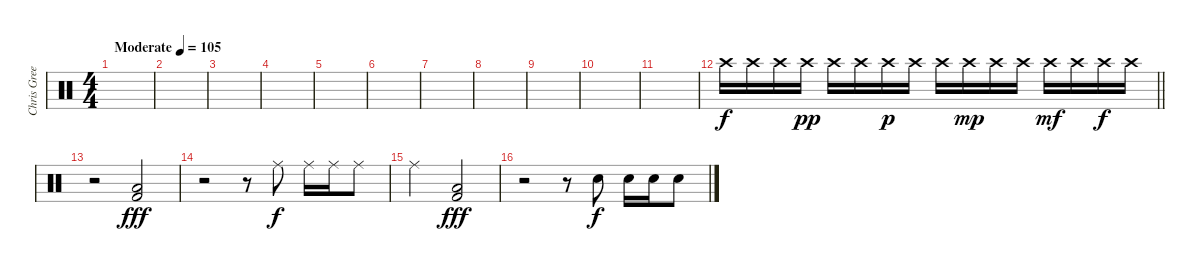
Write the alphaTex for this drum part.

\track ("Chris Greene" "Chris Gree") {instrument percussion}
\staff {score}
\articulation defaults
\ts (4 4)
\tempo (105 "Moderate")
\clef neutral
\ks c
|
|
|
|
|
|
|
|
|
|
|
\barLineRight lightlight "Crash high (hit)".16 "Crash high (hit)".16 "Crash high (hit)".16 "Crash high (hit)".16{dy pp} "Crash high (hit)".16 "Crash high (hit)".16 "Crash high (hit)".16{dy p} "Crash high (hit)".16 "Crash high (hit)".16 "Crash high (hit)".16{dy mp} "Crash high (hit)".16 "Crash high (hit)".16 "Crash high (hit)".16{dy mf} "Crash high (hit)".16 "Crash high (hit)".16{dy f} "Crash high (hit)".16
|
r.2 ("Low Floor Tom (hit)" "Kick (hit) 2").2{dy fff} |
r.2 r.8 "Ride (middle)".8{dy f} "Ride (middle)".16 "Ride (middle)".16 "Ride (middle)".8 |
"Ride (middle)".2 ("Low Floor Tom (hit)" "Kick (hit) 2").2{dy fff} |
r.2 r.8 "Electric Snare (hit)".8{dy f} "Electric Snare (hit)".16 "Electric Snare (hit)".16 "Electric Snare (hit)".8
